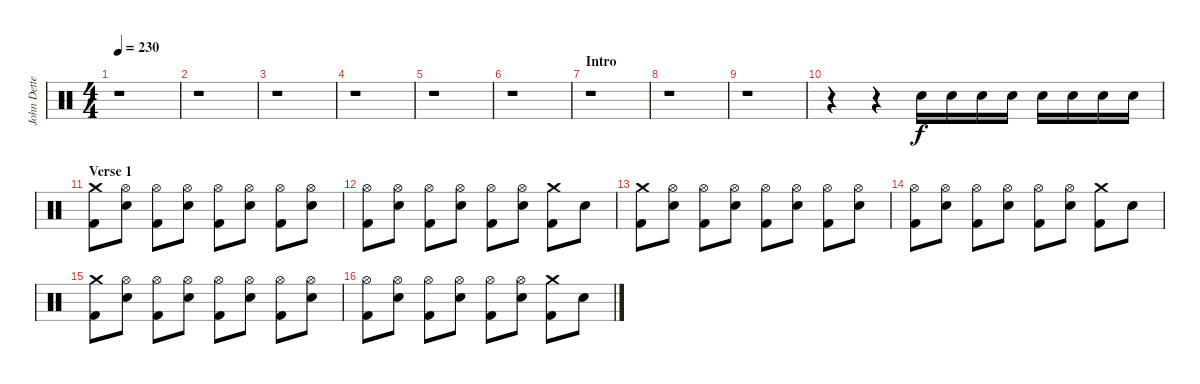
\track ("John Dette" "John Dette") {instrument percussion}
\staff {score}
\articulation defaults
\ts (4 4)
\tempo 230
\clef neutral
\ks c
r.1{dy f} |
r.1 |
r.1 |
r.1 |
r.1 |
r.1 |
\section ("" "Intro")
r.1 |
r.1 |
r.1 |
r.4 r.4 "Snare (hit) 2".16 "Snare (hit) 2".16 "Snare (hit) 2".16 "Snare (hit) 2".16 "Snare (hit) 2".16 "Snare (hit) 2".16 "Snare (hit) 2".16 "Snare (hit) 2".16 |
\section ("" "Verse 1")
("Crash medium (hit)" "Kick (hit) 2").8 ("Hi-Hat (open)" "Snare (hit) 2").8 ("Hi-Hat (open)" "Kick (hit) 2").8 ("Hi-Hat (open)" "Snare (hit) 2").8 ("Hi-Hat (open)" "Kick (hit) 2").8 ("Hi-Hat (open)" "Snare (hit) 2").8 ("Hi-Hat (open)" "Kick (hit) 2").8 ("Hi-Hat (open)" "Snare (hit) 2").8 |
("Hi-Hat (open)" "Kick (hit) 2").8 ("Hi-Hat (open)" "Snare (hit) 2").8 ("Hi-Hat (open)" "Kick (hit) 2").8 ("Hi-Hat (open)" "Snare (hit) 2").8 ("Hi-Hat (open)" "Kick (hit) 2").8 ("Hi-Hat (open)" "Snare (hit) 2").8 ("Crash medium (hit)" "Kick (hit) 2").8 "Snare (hit) 2".8 |
("Crash medium (hit)" "Kick (hit) 2").8 ("Hi-Hat (open)" "Snare (hit) 2").8 ("Hi-Hat (open)" "Kick (hit) 2").8 ("Hi-Hat (open)" "Snare (hit) 2").8 ("Hi-Hat (open)" "Kick (hit) 2").8 ("Hi-Hat (open)" "Snare (hit) 2").8 ("Hi-Hat (open)" "Kick (hit) 2").8 ("Hi-Hat (open)" "Snare (hit) 2").8 |
("Hi-Hat (open)" "Kick (hit) 2").8 ("Hi-Hat (open)" "Snare (hit) 2").8 ("Hi-Hat (open)" "Kick (hit) 2").8 ("Hi-Hat (open)" "Snare (hit) 2").8 ("Hi-Hat (open)" "Kick (hit) 2").8 ("Hi-Hat (open)" "Snare (hit) 2").8 ("Crash medium (hit)" "Kick (hit) 2").8 "Snare (hit) 2".8 |
("Crash medium (hit)" "Kick (hit) 2").8 ("Hi-Hat (open)" "Snare (hit) 2").8 ("Hi-Hat (open)" "Kick (hit) 2").8 ("Hi-Hat (open)" "Snare (hit) 2").8 ("Hi-Hat (open)" "Kick (hit) 2").8 ("Hi-Hat (open)" "Snare (hit) 2").8 ("Hi-Hat (open)" "Kick (hit) 2").8 ("Hi-Hat (open)" "Snare (hit) 2").8 |
("Hi-Hat (open)" "Kick (hit) 2").8 ("Hi-Hat (open)" "Snare (hit) 2").8 ("Hi-Hat (open)" "Kick (hit) 2").8 ("Hi-Hat (open)" "Snare (hit) 2").8 ("Hi-Hat (open)" "Kick (hit) 2").8 ("Hi-Hat (open)" "Snare (hit) 2").8 ("Crash medium (hit)" "Kick (hit) 2").8 "Snare (hit) 2".8
